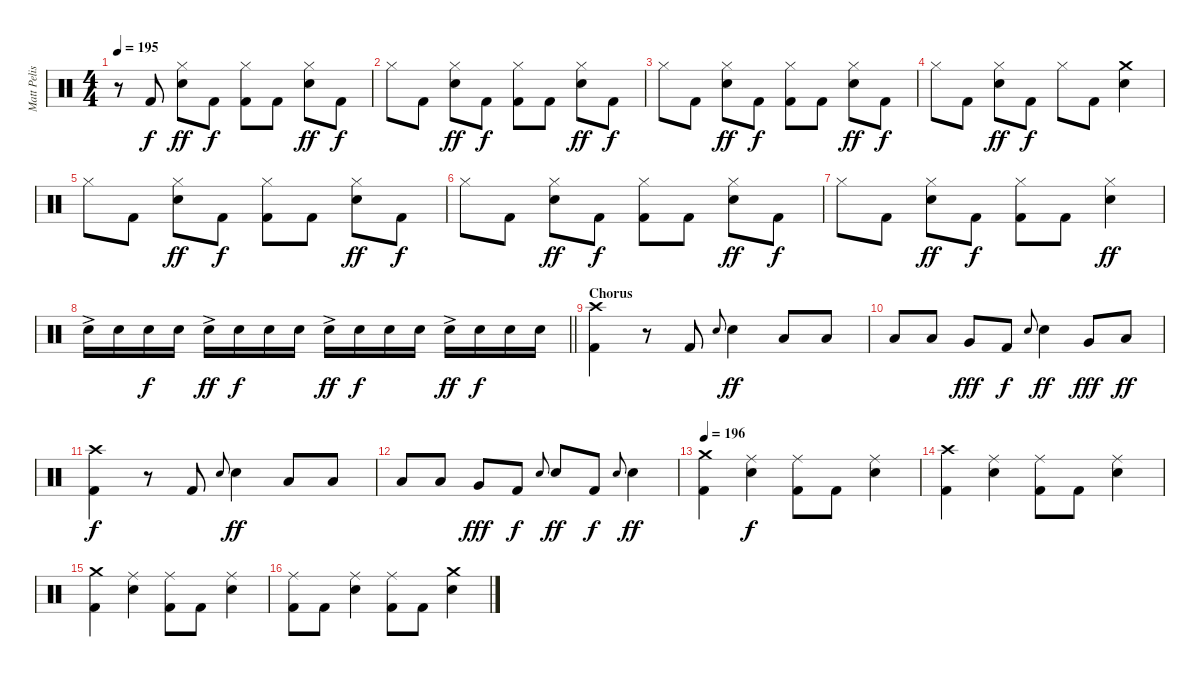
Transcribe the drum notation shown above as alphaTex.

\track ("Matt Pelissier" "Matt Pelis") {instrument percussion}
\staff {score}
\articulation defaults
\ts (4 4)
\tempo 195
\clef neutral
\ks c
r.8{dy f} "Kick (hit) 2".8 ("Hi-Hat (closed)" "Snare (hit) 2").8{dy ff} "Kick (hit) 2".8{dy f} ("Hi-Hat (closed)" "Kick (hit) 2").8 "Kick (hit) 2".8 ("Hi-Hat (closed)" "Snare (hit) 2").8{dy ff} "Kick (hit) 2".8{dy f} |
"Hi-Hat (closed)".8 "Kick (hit) 2".8 ("Hi-Hat (closed)" "Snare (hit) 2").8{dy ff} "Kick (hit) 2".8{dy f} ("Hi-Hat (closed)" "Kick (hit) 2").8 "Kick (hit) 2".8 ("Hi-Hat (closed)" "Snare (hit) 2").8{dy ff} "Kick (hit) 2".8{dy f} |
"Hi-Hat (closed)".8 "Kick (hit) 2".8 ("Hi-Hat (closed)" "Snare (hit) 2").8{dy ff} "Kick (hit) 2".8{dy f} ("Hi-Hat (closed)" "Kick (hit) 2").8 "Kick (hit) 2".8 ("Hi-Hat (closed)" "Snare (hit) 2").8{dy ff} "Kick (hit) 2".8{dy f} |
"Hi-Hat (closed)".8 "Kick (hit) 2".8 ("Hi-Hat (closed)" "Snare (hit) 2").8{dy ff} "Kick (hit) 2".8{dy f} "Hi-Hat (closed)".8 "Kick (hit) 2".8 ("Crash medium (hit)" "Snare (hit) 2").4 |
"Hi-Hat (closed)".8 "Kick (hit) 2".8 ("Hi-Hat (closed)" "Snare (hit) 2").8{dy ff} "Kick (hit) 2".8{dy f} ("Hi-Hat (closed)" "Kick (hit) 2").8 "Kick (hit) 2".8 ("Hi-Hat (closed)" "Snare (hit) 2").8{dy ff} "Kick (hit) 2".8{dy f} |
"Hi-Hat (closed)".8 "Kick (hit) 2".8 ("Hi-Hat (closed)" "Snare (hit) 2").8{dy ff} "Kick (hit) 2".8{dy f} ("Hi-Hat (closed)" "Kick (hit) 2").8 "Kick (hit) 2".8 ("Hi-Hat (closed)" "Snare (hit) 2").8{dy ff} "Kick (hit) 2".8{dy f} |
"Hi-Hat (closed)".8 "Kick (hit) 2".8 ("Hi-Hat (closed)" "Snare (hit) 2").8{dy ff} "Kick (hit) 2".8{dy f} ("Hi-Hat (closed)" "Kick (hit) 2").8 "Kick (hit) 2".8 ("Hi-Hat (closed)" "Snare (hit) 2").4{dy ff} |
\barLineRight lightlight "Snare (hit) 2"{ac}.16 "Snare (hit) 2".16 "Snare (hit) 2".16{dy f} "Snare (hit) 2".16 "Snare (hit) 2"{ac}.16{dy ff} "Snare (hit) 2".16{dy f} "Snare (hit) 2".16 "Snare (hit) 2".16 "Snare (hit) 2"{ac}.16{dy ff} "Snare (hit) 2".16{dy f} "Snare (hit) 2".16 "Snare (hit) 2".16 "Snare (hit) 2"{ac}.16{dy ff} "Snare (hit) 2".16{dy f} "Snare (hit) 2".16 "Snare (hit) 2".16
|
\section ("" "Chorus")
("Crash high (hit)" "Kick (hit) 2").4 r.8 "Kick (hit) 2".8 "Snare (hit) 2".8{gr onbeat} "Snare (hit) 2".4{dy ff} "Low Tom (hit)".8 "Low Tom (hit)".8 |
"Low Tom (hit)".8 "Low Tom (hit)".8 "Very Low Tom (hit)".8{dy fff} "Kick (hit) 2".8{dy f} "Snare (hit) 2".8{gr onbeat} "Snare (hit) 2".4{dy ff} "Very Low Tom (hit)".8{dy fff} "Low Tom (hit)".8{dy ff} |
("Crash high (hit)" "Kick (hit) 2").4{dy f} r.8 "Kick (hit) 2".8 "Snare (hit) 2".8{gr onbeat} "Snare (hit) 2".4{dy ff} "Low Tom (hit)".8 "Low Tom (hit)".8 |
"Low Tom (hit)".8 "Low Tom (hit)".8 "Very Low Tom (hit)".8{dy fff} "Kick (hit) 2".8{dy f} "Snare (hit) 2".8{gr onbeat} "Snare (hit) 2".8{dy ff} "Kick (hit) 2".8{dy f} "Snare (hit) 2".8{gr onbeat} "Snare (hit) 2".4{dy ff} |
\tempo 196
("Crash medium (hit)" "Kick (hit) 2").4 ("Ride (middle)" "Snare (hit) 2").4{dy f} ("Ride (middle)" "Kick (hit) 2").8 "Kick (hit) 2".8 ("Ride (middle)" "Snare (hit) 2").4 |
("Crash high (hit)" "Kick (hit) 2").4 ("Ride (middle)" "Snare (hit) 2").4 ("Ride (middle)" "Kick (hit) 2").8 "Kick (hit) 2".8 ("Ride (middle)" "Snare (hit) 2").4 |
("Crash medium (hit)" "Kick (hit) 2").4 ("Ride (middle)" "Snare (hit) 2").4 ("Ride (middle)" "Kick (hit) 2").8 "Kick (hit) 2".8 ("Ride (middle)" "Snare (hit) 2").4 |
("Ride (middle)" "Kick (hit) 2").8 "Kick (hit) 2".8 ("Ride (middle)" "Snare (hit) 2").4 ("Ride (middle)" "Kick (hit) 2").8 "Kick (hit) 2".8 ("Crash medium (hit)" "Snare (hit) 2").4
